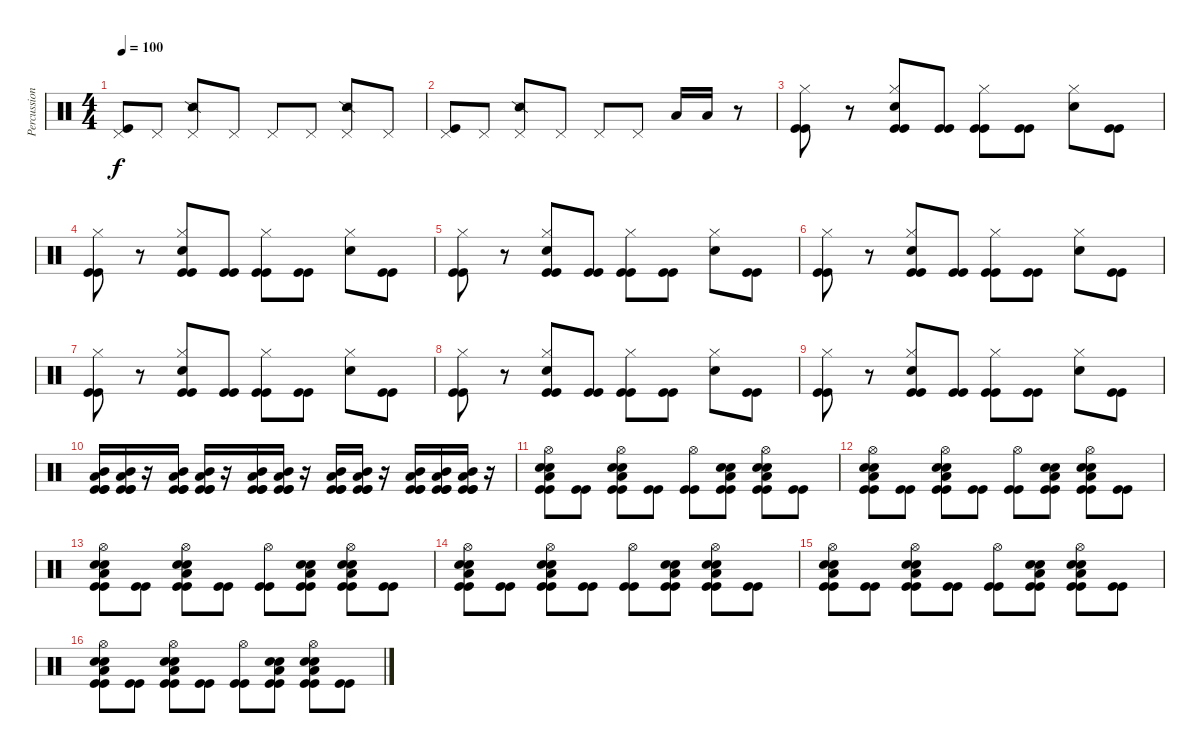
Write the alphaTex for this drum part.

\track ("Percussion" "Percussion") {instrument percussion}
\staff {score}
\articulation defaults
\ts (4 4)
\tempo 100
\clef neutral
\ks c
("Pedal Hi-Hat (hit)" "Kick (hit)").8{dy f} "Pedal Hi-Hat (hit)".8 ("Pedal Hi-Hat (hit)" "Snare (side stick) 2").8 "Pedal Hi-Hat (hit)".8 "Pedal Hi-Hat (hit)".8 "Pedal Hi-Hat (hit)".8 ("Pedal Hi-Hat (hit)" "Snare (side stick) 2").8 "Pedal Hi-Hat (hit)".8 |
("Pedal Hi-Hat (hit)" "Kick (hit)").8 "Pedal Hi-Hat (hit)".8 ("Pedal Hi-Hat (hit)" "Snare (side stick) 2").8 "Pedal Hi-Hat (hit)".8 "Pedal Hi-Hat (hit)".8 "Pedal Hi-Hat (hit)".8 "Low Tom (hit)".16 "Low Tom (hit)".16 r.8 |
("Hi-Hat (closed)" "Kick (hit)" "Kick (hit)").8 r.8 ("Hi-Hat (closed)" "Kick (hit)" "Kick (hit)" "Electric Snare (hit)").8 ("Kick (hit)" "Kick (hit)").8 ("Hi-Hat (closed)" "Kick (hit)" "Kick (hit)").8 ("Kick (hit)" "Kick (hit)").8 ("Hi-Hat (closed)" "Electric Snare (hit)").8 ("Kick (hit)" "Kick (hit)").8 |
("Hi-Hat (closed)" "Kick (hit)" "Kick (hit)").8 r.8 ("Hi-Hat (closed)" "Kick (hit)" "Kick (hit)" "Electric Snare (hit)").8 ("Kick (hit)" "Kick (hit)").8 ("Hi-Hat (closed)" "Kick (hit)" "Kick (hit)").8 ("Kick (hit)" "Kick (hit)").8 ("Hi-Hat (closed)" "Electric Snare (hit)").8 ("Kick (hit)" "Kick (hit)").8 |
("Hi-Hat (closed)" "Kick (hit)" "Kick (hit)").8 r.8 ("Hi-Hat (closed)" "Kick (hit)" "Kick (hit)" "Electric Snare (hit)").8 ("Kick (hit)" "Kick (hit)").8 ("Hi-Hat (closed)" "Kick (hit)" "Kick (hit)").8 ("Kick (hit)" "Kick (hit)").8 ("Hi-Hat (closed)" "Electric Snare (hit)").8 ("Kick (hit)" "Kick (hit)").8 |
("Hi-Hat (closed)" "Kick (hit)" "Kick (hit)").8 r.8 ("Hi-Hat (closed)" "Kick (hit)" "Kick (hit)" "Electric Snare (hit)").8 ("Kick (hit)" "Kick (hit)").8 ("Hi-Hat (closed)" "Kick (hit)" "Kick (hit)").8 ("Kick (hit)" "Kick (hit)").8 ("Hi-Hat (closed)" "Electric Snare (hit)").8 ("Kick (hit)" "Kick (hit)").8 |
("Hi-Hat (closed)" "Kick (hit)" "Kick (hit)").8 r.8 ("Hi-Hat (closed)" "Kick (hit)" "Kick (hit)" "Electric Snare (hit)").8 ("Kick (hit)" "Kick (hit)").8 ("Hi-Hat (closed)" "Kick (hit)" "Kick (hit)").8 ("Kick (hit)" "Kick (hit)").8 ("Hi-Hat (closed)" "Electric Snare (hit)").8 ("Kick (hit)" "Kick (hit)").8 |
("Hi-Hat (closed)" "Kick (hit)" "Kick (hit)").8 r.8 ("Hi-Hat (closed)" "Kick (hit)" "Kick (hit)" "Electric Snare (hit)").8 ("Kick (hit)" "Kick (hit)").8 ("Hi-Hat (closed)" "Kick (hit)" "Kick (hit)").8 ("Kick (hit)" "Kick (hit)").8 ("Hi-Hat (closed)" "Electric Snare (hit)").8 ("Kick (hit)" "Kick (hit)").8 |
("Hi-Hat (closed)" "Kick (hit)" "Kick (hit)").8 r.8 ("Hi-Hat (closed)" "Kick (hit)" "Kick (hit)" "Electric Snare (hit)").8 ("Kick (hit)" "Kick (hit)").8 ("Hi-Hat (closed)" "Kick (hit)" "Kick (hit)").8 ("Kick (hit)" "Kick (hit)").8 ("Hi-Hat (closed)" "Electric Snare (hit)").8 ("Kick (hit)" "Kick (hit)").8 |
("Kick (hit)" "Kick (hit)" "Kick (hit)" "Low Tom (hit)" "Mid Tom (hit)").16 ("Kick (hit)" "Kick (hit)" "Kick (hit)" "Low Tom (hit)" "Mid Tom (hit)").16 r.16 ("Kick (hit)" "Kick (hit)" "Kick (hit)" "Low Tom (hit)" "Mid Tom (hit)").16 ("Kick (hit)" "Kick (hit)" "Kick (hit)" "Low Tom (hit)" "Mid Tom (hit)").16 r.16 ("Kick (hit)" "Kick (hit)" "Kick (hit)" "Low Tom (hit)" "Mid Tom (hit)").16 ("Kick (hit)" "Kick (hit)" "Kick (hit)" "Low Tom (hit)" "Mid Tom (hit)").16 r.16 ("Kick (hit)" "Kick (hit)" "Kick (hit)" "Low Tom (hit)" "Mid Tom (hit)").16 ("Kick (hit)" "Kick (hit)" "Kick (hit)" "Low Tom (hit)" "Mid Tom (hit)").16 r.16 ("Kick (hit)" "Kick (hit)" "Kick (hit)" "Low Tom (hit)" "Mid Tom (hit)").16 ("Kick (hit)" "Kick (hit)" "Kick (hit)" "Low Tom (hit)" "Mid Tom (hit)").16 ("Kick (hit)" "Kick (hit)" "Kick (hit)" "Low Tom (hit)" "Mid Tom (hit)").16 r.16 |
("Hi-Hat (open)" "Kick (hit)" "Kick (hit)" "Electric Snare (hit)" "Electric Snare (hit)" "Low Tom (hit)").8 ("Kick (hit)" "Kick (hit)").8 ("Hi-Hat (open)" "Kick (hit)" "Kick (hit)" "Electric Snare (hit)" "Electric Snare (hit)" "Low Tom (hit)").8 ("Kick (hit)" "Kick (hit)").8 ("Hi-Hat (open)" "Kick (hit)" "Kick (hit)").8 ("Kick (hit)" "Kick (hit)" "Electric Snare (hit)" "Electric Snare (hit)" "Low Tom (hit)").8 ("Hi-Hat (open)" "Kick (hit)" "Kick (hit)" "Electric Snare (hit)" "Electric Snare (hit)" "Low Tom (hit)").8 ("Kick (hit)" "Kick (hit)").8 |
("Hi-Hat (open)" "Kick (hit)" "Kick (hit)" "Electric Snare (hit)" "Electric Snare (hit)" "Low Tom (hit)").8 ("Kick (hit)" "Kick (hit)").8 ("Hi-Hat (open)" "Kick (hit)" "Kick (hit)" "Electric Snare (hit)" "Electric Snare (hit)" "Low Tom (hit)").8 ("Kick (hit)" "Kick (hit)").8 ("Hi-Hat (open)" "Kick (hit)" "Kick (hit)").8 ("Kick (hit)" "Kick (hit)" "Electric Snare (hit)" "Electric Snare (hit)" "Low Tom (hit)").8 ("Hi-Hat (open)" "Kick (hit)" "Kick (hit)" "Electric Snare (hit)" "Electric Snare (hit)" "Low Tom (hit)").8 ("Kick (hit)" "Kick (hit)").8 |
("Hi-Hat (open)" "Kick (hit)" "Kick (hit)" "Electric Snare (hit)" "Electric Snare (hit)" "Low Tom (hit)").8 ("Kick (hit)" "Kick (hit)").8 ("Hi-Hat (open)" "Kick (hit)" "Kick (hit)" "Electric Snare (hit)" "Electric Snare (hit)" "Low Tom (hit)").8 ("Kick (hit)" "Kick (hit)").8 ("Hi-Hat (open)" "Kick (hit)" "Kick (hit)").8 ("Kick (hit)" "Kick (hit)" "Electric Snare (hit)" "Electric Snare (hit)" "Low Tom (hit)").8 ("Hi-Hat (open)" "Kick (hit)" "Kick (hit)" "Electric Snare (hit)" "Electric Snare (hit)" "Low Tom (hit)").8 ("Kick (hit)" "Kick (hit)").8 |
("Hi-Hat (open)" "Kick (hit)" "Kick (hit)" "Electric Snare (hit)" "Electric Snare (hit)" "Low Tom (hit)").8 ("Kick (hit)" "Kick (hit)").8 ("Hi-Hat (open)" "Kick (hit)" "Kick (hit)" "Electric Snare (hit)" "Electric Snare (hit)" "Low Tom (hit)").8 ("Kick (hit)" "Kick (hit)").8 ("Hi-Hat (open)" "Kick (hit)" "Kick (hit)").8 ("Kick (hit)" "Kick (hit)" "Electric Snare (hit)" "Electric Snare (hit)" "Low Tom (hit)").8 ("Hi-Hat (open)" "Kick (hit)" "Kick (hit)" "Electric Snare (hit)" "Electric Snare (hit)" "Low Tom (hit)").8 ("Kick (hit)" "Kick (hit)").8 |
("Hi-Hat (open)" "Kick (hit)" "Kick (hit)" "Electric Snare (hit)" "Electric Snare (hit)" "Low Tom (hit)").8 ("Kick (hit)" "Kick (hit)").8 ("Hi-Hat (open)" "Kick (hit)" "Kick (hit)" "Electric Snare (hit)" "Electric Snare (hit)" "Low Tom (hit)").8 ("Kick (hit)" "Kick (hit)").8 ("Hi-Hat (open)" "Kick (hit)" "Kick (hit)").8 ("Kick (hit)" "Kick (hit)" "Electric Snare (hit)" "Electric Snare (hit)" "Low Tom (hit)").8 ("Hi-Hat (open)" "Kick (hit)" "Kick (hit)" "Electric Snare (hit)" "Electric Snare (hit)" "Low Tom (hit)").8 ("Kick (hit)" "Kick (hit)").8 |
("Hi-Hat (open)" "Kick (hit)" "Kick (hit)" "Electric Snare (hit)" "Electric Snare (hit)" "Low Tom (hit)").8 ("Kick (hit)" "Kick (hit)").8 ("Hi-Hat (open)" "Kick (hit)" "Kick (hit)" "Electric Snare (hit)" "Electric Snare (hit)" "Low Tom (hit)").8 ("Kick (hit)" "Kick (hit)").8 ("Hi-Hat (open)" "Kick (hit)" "Kick (hit)").8 ("Kick (hit)" "Kick (hit)" "Electric Snare (hit)" "Electric Snare (hit)" "Low Tom (hit)").8 ("Hi-Hat (open)" "Kick (hit)" "Kick (hit)" "Electric Snare (hit)" "Electric Snare (hit)" "Low Tom (hit)").8 ("Kick (hit)" "Kick (hit)").8
